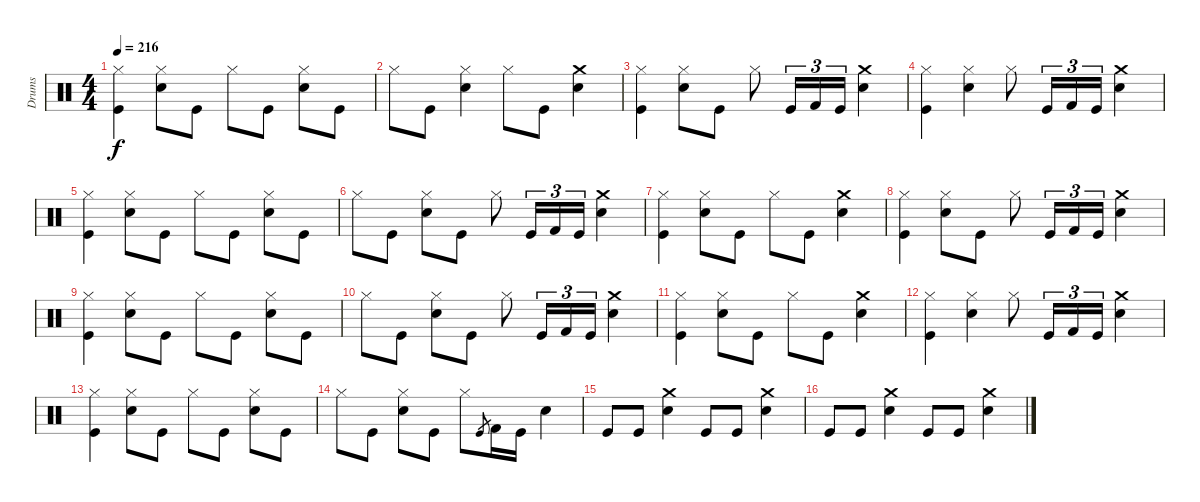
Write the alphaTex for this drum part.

\track ("Drums" "Drums") {instrument percussion}
\staff {score}
\articulation defaults
\ts (4 4)
\tempo 216
\clef neutral
\ks c
("Hi-Hat (closed)" "Kick (hit)").4{dy f} ("Snare (hit) 2" "Hi-Hat (closed)").8 "Kick (hit)".8 "Hi-Hat (closed)".8 "Kick (hit)".8 ("Snare (hit) 2" "Hi-Hat (closed)").8 "Kick (hit)".8 |
"Hi-Hat (closed)".8 "Kick (hit)".8 ("Snare (hit) 2" "Hi-Hat (closed)").4 "Hi-Hat (closed)".8 "Kick (hit)".8 ("Crash medium (hit)" "Snare (hit) 2").4 |
("Kick (hit)" "Hi-Hat (closed)").4 ("Snare (hit) 2" "Hi-Hat (closed)").8 "Kick (hit)".8 "Hi-Hat (closed)".8 "Kick (hit)".16{tu (3 2)} "Kick (hit) 2".16{tu (3 2)} "Kick (hit)".16{tu (3 2)} ("Crash medium (hit)" "Snare (hit) 2").4 |
("Hi-Hat (closed)" "Kick (hit)").4 ("Snare (hit) 2" "Hi-Hat (closed)").4 "Hi-Hat (closed)".8 "Kick (hit)".16{tu (3 2)} "Kick (hit) 2".16{tu (3 2)} "Kick (hit)".16{tu (3 2)} ("Crash medium (hit)" "Snare (hit) 2").4 |
("Hi-Hat (closed)" "Kick (hit)").4 ("Snare (hit) 2" "Hi-Hat (closed)").8 "Kick (hit)".8 "Hi-Hat (closed)".8 "Kick (hit)".8 ("Snare (hit) 2" "Hi-Hat (closed)").8 "Kick (hit)".8 |
"Hi-Hat (closed)".8 "Kick (hit)".8 ("Snare (hit) 2" "Hi-Hat (closed)").8 "Kick (hit)".8 "Hi-Hat (closed)".8 "Kick (hit)".16{tu (3 2)} "Kick (hit) 2".16{tu (3 2)} "Kick (hit)".16{tu (3 2)} ("Crash medium (hit)" "Snare (hit) 2").4 |
("Hi-Hat (closed)" "Kick (hit)").4 ("Snare (hit) 2" "Hi-Hat (closed)").8 "Kick (hit)".8 "Hi-Hat (closed)".8 "Kick (hit)".8 ("Crash medium (hit)" "Snare (hit) 2").4 |
("Kick (hit)" "Hi-Hat (closed)").4 ("Snare (hit) 2" "Hi-Hat (closed)").8 "Kick (hit)".8 "Hi-Hat (closed)".8 "Kick (hit)".16{tu (3 2)} "Kick (hit) 2".16{tu (3 2)} "Kick (hit)".16{tu (3 2)} ("Crash medium (hit)" "Snare (hit) 2").4 |
("Hi-Hat (closed)" "Kick (hit)").4 ("Snare (hit) 2" "Hi-Hat (closed)").8 "Kick (hit)".8 "Hi-Hat (closed)".8 "Kick (hit)".8 ("Snare (hit) 2" "Hi-Hat (closed)").8 "Kick (hit)".8 |
"Hi-Hat (closed)".8 "Kick (hit)".8 ("Snare (hit) 2" "Hi-Hat (closed)").8 "Kick (hit)".8 "Hi-Hat (closed)".8 "Kick (hit)".16{tu (3 2)} "Kick (hit) 2".16{tu (3 2)} "Kick (hit)".16{tu (3 2)} ("Crash medium (hit)" "Snare (hit) 2").4 |
("Hi-Hat (closed)" "Kick (hit)").4 ("Snare (hit) 2" "Hi-Hat (closed)").8 "Kick (hit)".8 "Hi-Hat (closed)".8 "Kick (hit)".8 ("Crash medium (hit)" "Snare (hit) 2").4 |
("Hi-Hat (closed)" "Kick (hit)").4 ("Snare (hit) 2" "Hi-Hat (closed)").4 "Hi-Hat (closed)".8 "Kick (hit)".16{tu (3 2)} "Kick (hit) 2".16{tu (3 2)} "Kick (hit)".16{tu (3 2)} ("Crash medium (hit)" "Snare (hit) 2").4 |
("Hi-Hat (closed)" "Kick (hit)").4 ("Hi-Hat (closed)" "Snare (hit) 2").8 "Kick (hit)".8 "Hi-Hat (closed)".8 "Kick (hit)".8 ("Snare (hit) 2" "Hi-Hat (closed)").8 "Kick (hit)".8 |
"Hi-Hat (closed)".8 "Kick (hit)".8 ("Snare (hit) 2" "Hi-Hat (closed)").8 "Kick (hit)".8 "Hi-Hat (closed)".8 "Kick (hit)".8{gr} "Kick (hit) 2".16 "Kick (hit)".16 "Snare (hit) 2".4 |
"Kick (hit)".8 "Kick (hit)".8 ("Crash medium (hit)" "Snare (hit) 2").4 "Kick (hit)".8 "Kick (hit)".8 ("Snare (hit) 2" "Crash medium (hit)").4 |
"Kick (hit)".8 "Kick (hit)".8 ("Snare (hit) 2" "Crash medium (hit)").4 "Kick (hit)".8 "Kick (hit)".8 ("Snare (hit) 2" "Crash medium (hit)").4
